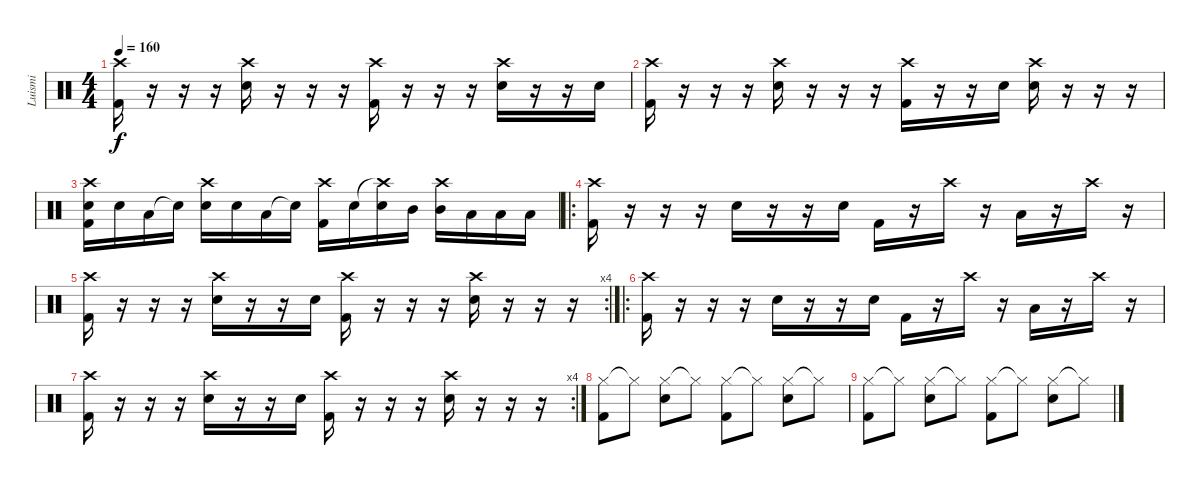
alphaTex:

\track ("Luismi" "Luismi") {instrument percussion}
\staff {score}
\articulation defaults
\ts (4 4)
\tempo 160
\clef neutral
\ks c
("Crash high (hit)" "Kick (hit) 2").16{dy f} r.16 r.16 r.16 ("Crash high (hit)" "Electric Snare (hit)").16 r.16 r.16 r.16 ("Crash high (hit)" "Kick (hit) 2").16 r.16 r.16 r.16 ("Crash high (hit)" "Electric Snare (hit)").16 r.16 r.16 "Electric Snare (hit)".16 |
("Crash high (hit)" "Kick (hit) 2").16 r.16 r.16 r.16 ("Crash high (hit)" "Electric Snare (hit)").16 r.16 r.16 r.16 ("Crash high (hit)" "Kick (hit) 2").16 r.16 r.16 "Electric Snare (hit)".16 ("Crash high (hit)" "Electric Snare (hit)").16 r.16 r.16 r.16 |
("Crash high (hit)" "Kick (hit) 2" "Electric Snare (hit)").16 "Electric Snare (hit)".16 "Low Tom (hit)".16 "Snare (hit)"{t}.16 ("Crash high (hit)" "Electric Snare (hit)").16 "Electric Snare (hit)".16 "Low Tom (hit)".16 "Snare (hit)"{t}.16 ("Crash high (hit)" "Kick (hit) 2").16 "Electric Snare (hit)".16 ("Crash high (hit)"{t} "Electric Snare (hit)").16 "Mid Tom (hit)".16 ("Crash high (hit)" "Mid Tom (hit)").16 "Low Tom (hit)".16 "Low Tom (hit)".16 "Low Tom (hit)".16 |
\ro
("Crash high (hit)" "Kick (hit) 2").16 r.16 r.16 r.16 "Electric Snare (hit)".16 r.16 r.16 "Electric Snare (hit)".16 "Kick (hit) 2".16 r.16 "Crash high (hit)".16 r.16 "Low Tom (hit)".16 r.16 "Crash high (hit)".16 r.16 |
\rc 4
("Crash high (hit)" "Kick (hit) 2").16 r.16 r.16 r.16 ("Crash high (hit)" "Electric Snare (hit)").16 r.16 r.16 "Electric Snare (hit)".16 ("Crash high (hit)" "Kick (hit) 2").16 r.16 r.16 r.16 ("Crash high (hit)" "Electric Snare (hit)").16 r.16 r.16 r.16 |
\ro
("Crash high (hit)" "Kick (hit) 2").16 r.16 r.16 r.16 "Electric Snare (hit)".16 r.16 r.16 "Electric Snare (hit)".16 "Kick (hit) 2".16 r.16 "Crash high (hit)".16 r.16 "Low Tom (hit)".16 r.16 "Crash high (hit)".16 r.16 |
\rc 4
("Crash high (hit)" "Kick (hit) 2").16 r.16 r.16 r.16 ("Crash high (hit)" "Electric Snare (hit)").16 r.16 r.16 "Electric Snare (hit)".16 ("Crash high (hit)" "Kick (hit) 2").16 r.16 r.16 r.16 ("Crash high (hit)" "Electric Snare (hit)").16 r.16 r.16 r.16 |
("Hi-Hat (closed)" "Kick (hit) 2").8 "Hi-Hat (closed)"{t}.8 ("Hi-Hat (closed)" "Electric Snare (hit)").8 "Hi-Hat (closed)"{t}.8 ("Hi-Hat (closed)" "Kick (hit) 2").8 "Hi-Hat (closed)"{t}.8 ("Hi-Hat (closed)" "Electric Snare (hit)").8 "Hi-Hat (closed)"{t}.8 |
("Hi-Hat (closed)" "Kick (hit) 2").8 "Hi-Hat (closed)"{t}.8 ("Hi-Hat (closed)" "Electric Snare (hit)").8 "Hi-Hat (closed)"{t}.8 ("Hi-Hat (closed)" "Kick (hit) 2").8 "Hi-Hat (closed)"{t}.8 ("Hi-Hat (closed)" "Electric Snare (hit)").8 "Hi-Hat (closed)"{t}.8
